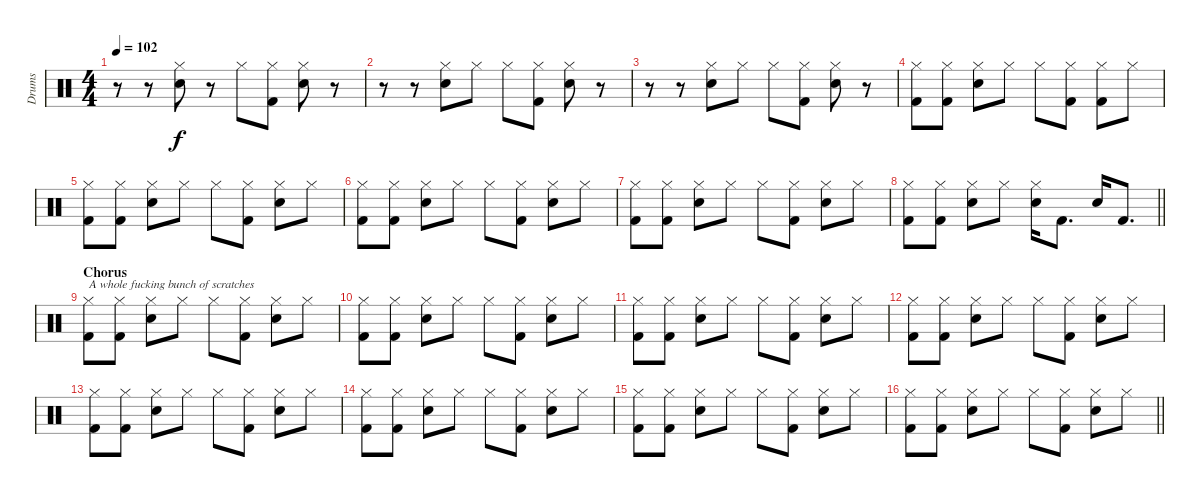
\track ("Drums" "Drums") {instrument percussion}
\staff {score}
\articulation defaults
\ts (4 4)
\tempo 102
\clef neutral
\ks c
r.8{dy f} r.8 ("Hi-Hat (closed)" "Snare (hit) 2").8 r.8 "Hi-Hat (closed)".8 ("Hi-Hat (closed)" "Kick (hit) 2").8 ("Hi-Hat (closed)" "Snare (hit) 2").8 r.8 |
r.8 r.8 ("Hi-Hat (closed)" "Snare (hit) 2").8 "Hi-Hat (closed)".8 "Hi-Hat (closed)".8 ("Hi-Hat (closed)" "Kick (hit) 2").8 ("Hi-Hat (closed)" "Snare (hit) 2").8 r.8 |
r.8 r.8 ("Hi-Hat (closed)" "Snare (hit) 2").8 "Hi-Hat (closed)".8 "Hi-Hat (closed)".8 ("Hi-Hat (closed)" "Kick (hit) 2").8 ("Hi-Hat (closed)" "Snare (hit) 2").8 r.8 |
("Hi-Hat (closed)" "Kick (hit) 2").8 ("Hi-Hat (closed)" "Kick (hit) 2").8 ("Hi-Hat (closed)" "Snare (hit) 2").8 "Hi-Hat (closed)".8 "Hi-Hat (closed)".8 ("Hi-Hat (closed)" "Kick (hit) 2").8 ("Hi-Hat (closed)" "Kick (hit) 2").8 "Hi-Hat (closed)".8 |
("Hi-Hat (closed)" "Kick (hit) 2").8 ("Hi-Hat (closed)" "Kick (hit) 2").8 ("Hi-Hat (closed)" "Snare (hit) 2").8 "Hi-Hat (closed)".8 "Hi-Hat (closed)".8 ("Hi-Hat (closed)" "Kick (hit) 2").8 ("Hi-Hat (closed)" "Snare (hit) 2").8 "Hi-Hat (closed)".8 |
("Hi-Hat (closed)" "Kick (hit) 2").8 ("Hi-Hat (closed)" "Kick (hit) 2").8 ("Hi-Hat (closed)" "Snare (hit) 2").8 "Hi-Hat (closed)".8 "Hi-Hat (closed)".8 ("Hi-Hat (closed)" "Kick (hit) 2").8 ("Hi-Hat (closed)" "Snare (hit) 2").8 "Hi-Hat (closed)".8 |
("Hi-Hat (closed)" "Kick (hit) 2").8 ("Hi-Hat (closed)" "Kick (hit) 2").8 ("Hi-Hat (closed)" "Snare (hit) 2").8 "Hi-Hat (closed)".8 "Hi-Hat (closed)".8 ("Hi-Hat (closed)" "Kick (hit) 2").8 ("Hi-Hat (closed)" "Snare (hit) 2").8 "Hi-Hat (closed)".8 |
\barLineRight lightlight
("Hi-Hat (closed)" "Kick (hit) 2").8 ("Hi-Hat (closed)" "Kick (hit) 2").8 ("Hi-Hat (closed)" "Snare (hit) 2").8 "Hi-Hat (closed)".8 ("Hi-Hat (closed)" "Snare (hit) 2").16 "Kick (hit) 2".8{d} "Snare (hit) 2".16 "Kick (hit) 2".8{d} |
\section ("" "Chorus")
("Hi-Hat (closed)" "Kick (hit) 2").8{txt "A whole fucking bunch of scratches"} ("Hi-Hat (closed)" "Kick (hit) 2").8 ("Hi-Hat (closed)" "Snare (hit) 2").8 "Hi-Hat (closed)".8 "Hi-Hat (closed)".8 ("Hi-Hat (closed)" "Kick (hit) 2").8 ("Hi-Hat (closed)" "Snare (hit) 2").8 "Hi-Hat (closed)".8 |
("Hi-Hat (closed)" "Kick (hit) 2").8 ("Hi-Hat (closed)" "Kick (hit) 2").8 ("Hi-Hat (closed)" "Snare (hit) 2").8 "Hi-Hat (closed)".8 "Hi-Hat (closed)".8 ("Hi-Hat (closed)" "Kick (hit) 2").8 ("Hi-Hat (closed)" "Snare (hit) 2").8 "Hi-Hat (closed)".8 |
("Hi-Hat (closed)" "Kick (hit) 2").8 ("Hi-Hat (closed)" "Kick (hit) 2").8 ("Hi-Hat (closed)" "Snare (hit) 2").8 "Hi-Hat (closed)".8 "Hi-Hat (closed)".8 ("Hi-Hat (closed)" "Kick (hit) 2").8 ("Hi-Hat (closed)" "Snare (hit) 2").8 "Hi-Hat (closed)".8 |
("Hi-Hat (closed)" "Kick (hit) 2").8 ("Hi-Hat (closed)" "Kick (hit) 2").8 ("Hi-Hat (closed)" "Snare (hit) 2").8 "Hi-Hat (closed)".8 "Hi-Hat (closed)".8 ("Hi-Hat (closed)" "Kick (hit) 2").8 ("Hi-Hat (closed)" "Snare (hit) 2").8 "Hi-Hat (closed)".8 |
("Hi-Hat (closed)" "Kick (hit) 2").8 ("Hi-Hat (closed)" "Kick (hit) 2").8 ("Hi-Hat (closed)" "Snare (hit) 2").8 "Hi-Hat (closed)".8 "Hi-Hat (closed)".8 ("Hi-Hat (closed)" "Kick (hit) 2").8 ("Hi-Hat (closed)" "Snare (hit) 2").8 "Hi-Hat (closed)".8 |
("Hi-Hat (closed)" "Kick (hit) 2").8 ("Hi-Hat (closed)" "Kick (hit) 2").8 ("Hi-Hat (closed)" "Snare (hit) 2").8 "Hi-Hat (closed)".8 "Hi-Hat (closed)".8 ("Hi-Hat (closed)" "Kick (hit) 2").8 ("Hi-Hat (closed)" "Snare (hit) 2").8 "Hi-Hat (closed)".8 |
("Hi-Hat (closed)" "Kick (hit) 2").8 ("Hi-Hat (closed)" "Kick (hit) 2").8 ("Hi-Hat (closed)" "Snare (hit) 2").8 "Hi-Hat (closed)".8 "Hi-Hat (closed)".8 ("Hi-Hat (closed)" "Kick (hit) 2").8 ("Hi-Hat (closed)" "Snare (hit) 2").8 "Hi-Hat (closed)".8 |
\barLineRight lightlight
("Hi-Hat (closed)" "Kick (hit) 2").8 ("Hi-Hat (closed)" "Kick (hit) 2").8 ("Hi-Hat (closed)" "Snare (hit) 2").8 "Hi-Hat (closed)".8 "Hi-Hat (closed)".8 ("Hi-Hat (closed)" "Kick (hit) 2").8 ("Hi-Hat (closed)" "Snare (hit) 2").8 "Hi-Hat (closed)".8
